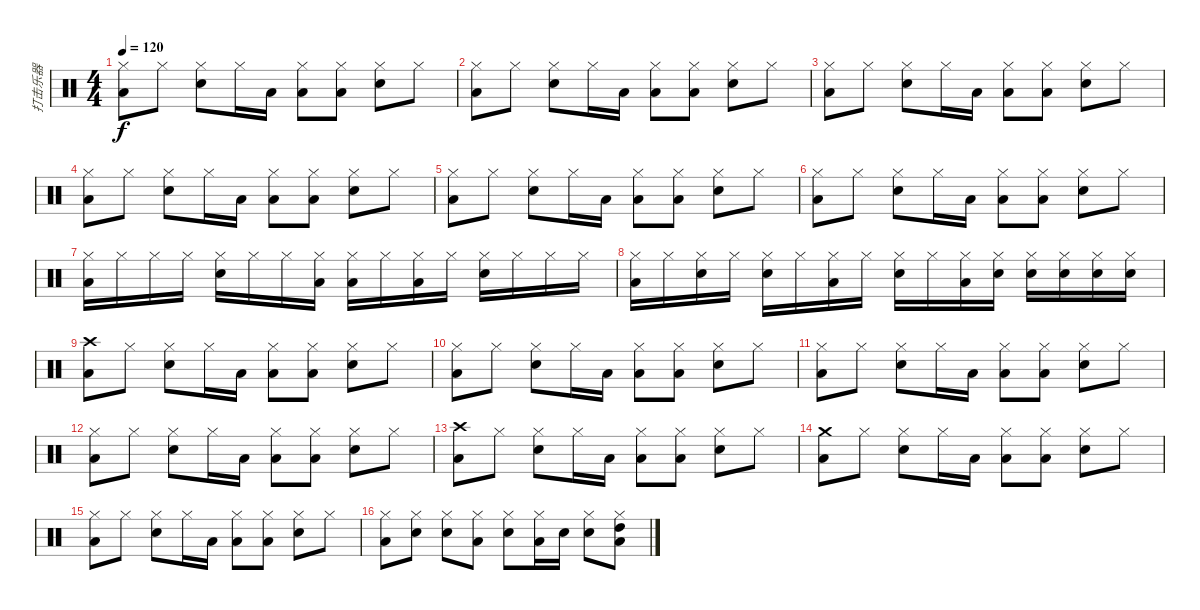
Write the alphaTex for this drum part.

\track ("打击乐器" "打击乐器") {instrument percussion}
\staff {score}
\articulation defaults
\ts (4 4)
\tempo 120
\clef neutral
\ks c
("Hi-Hat (closed)" "Low Floor Tom (hit)").8{dy f} "Hi-Hat (closed)".8 ("Hi-Hat (closed)" "Electric Snare (hit)").8 "Hi-Hat (closed)".16 "Low Floor Tom (hit)".16 ("Hi-Hat (closed)" "Low Floor Tom (hit)").8 ("Hi-Hat (closed)" "Low Floor Tom (hit)").8 ("Hi-Hat (closed)" "Electric Snare (hit)").8 "Hi-Hat (closed)".8 |
("Hi-Hat (closed)" "Low Floor Tom (hit)").8 "Hi-Hat (closed)".8 ("Hi-Hat (closed)" "Electric Snare (hit)").8 "Hi-Hat (closed)".16 "Low Floor Tom (hit)".16 ("Hi-Hat (closed)" "Low Floor Tom (hit)").8 ("Hi-Hat (closed)" "Low Floor Tom (hit)").8 ("Hi-Hat (closed)" "Electric Snare (hit)").8 "Hi-Hat (closed)".8 |
("Hi-Hat (closed)" "Low Floor Tom (hit)").8 "Hi-Hat (closed)".8 ("Hi-Hat (closed)" "Electric Snare (hit)").8 "Hi-Hat (closed)".16 "Low Floor Tom (hit)".16 ("Hi-Hat (closed)" "Low Floor Tom (hit)").8 ("Hi-Hat (closed)" "Low Floor Tom (hit)").8 ("Hi-Hat (closed)" "Electric Snare (hit)").8 "Hi-Hat (closed)".8 |
("Hi-Hat (closed)" "Low Floor Tom (hit)").8 "Hi-Hat (closed)".8 ("Hi-Hat (closed)" "Electric Snare (hit)").8 "Hi-Hat (closed)".16 "Low Floor Tom (hit)".16 ("Hi-Hat (closed)" "Low Floor Tom (hit)").8 ("Hi-Hat (closed)" "Low Floor Tom (hit)").8 ("Hi-Hat (closed)" "Electric Snare (hit)").8 "Hi-Hat (closed)".8 |
("Hi-Hat (closed)" "Low Floor Tom (hit)").8 "Hi-Hat (closed)".8 ("Hi-Hat (closed)" "Electric Snare (hit)").8 "Hi-Hat (closed)".16 "Low Floor Tom (hit)".16 ("Hi-Hat (closed)" "Low Floor Tom (hit)").8 ("Hi-Hat (closed)" "Low Floor Tom (hit)").8 ("Hi-Hat (closed)" "Electric Snare (hit)").8 "Hi-Hat (closed)".8 |
("Hi-Hat (closed)" "Low Floor Tom (hit)").8 "Hi-Hat (closed)".8 ("Hi-Hat (closed)" "Electric Snare (hit)").8 "Hi-Hat (closed)".16 "Low Floor Tom (hit)".16 ("Hi-Hat (closed)" "Low Floor Tom (hit)").8 ("Hi-Hat (closed)" "Low Floor Tom (hit)").8 ("Hi-Hat (closed)" "Electric Snare (hit)").8 "Hi-Hat (closed)".8 |
("Hi-Hat (closed)" "Low Floor Tom (hit)").16 "Hi-Hat (closed)".16 "Hi-Hat (closed)".16 "Hi-Hat (closed)".16 ("Hi-Hat (closed)" "Electric Snare (hit)").16 "Hi-Hat (closed)".16 "Hi-Hat (closed)".16 ("Hi-Hat (closed)" "Low Floor Tom (hit)").16 ("Hi-Hat (closed)" "Low Floor Tom (hit)").16 "Hi-Hat (closed)".16 ("Hi-Hat (closed)" "Low Floor Tom (hit)").16 "Hi-Hat (closed)".16 ("Hi-Hat (closed)" "Electric Snare (hit)").16 "Hi-Hat (closed)".16 "Hi-Hat (closed)".16 "Hi-Hat (closed)".16 |
("Hi-Hat (closed)" "Low Floor Tom (hit)").16 "Hi-Hat (closed)".16 ("Hi-Hat (closed)" "Electric Snare (hit)").16 "Hi-Hat (closed)".16 ("Hi-Hat (closed)" "Electric Snare (hit)").16 "Hi-Hat (closed)".16 ("Hi-Hat (closed)" "Low Floor Tom (hit)").16 "Hi-Hat (closed)".16 ("Hi-Hat (closed)" "Electric Snare (hit)").16 "Hi-Hat (closed)".16 ("Hi-Hat (closed)" "Low Floor Tom (hit)").16 ("Hi-Hat (closed)" "Electric Snare (hit)").16 ("Hi-Hat (closed)" "Electric Snare (hit)").16 ("Hi-Hat (closed)" "Electric Snare (hit)").16 ("Hi-Hat (closed)" "Electric Snare (hit)").16 ("Hi-Hat (closed)" "Electric Snare (hit)").16 |
("Crash high (hit)" "Low Floor Tom (hit)").8 "Hi-Hat (closed)".8 ("Hi-Hat (closed)" "Electric Snare (hit)").8 "Hi-Hat (closed)".16 "Low Floor Tom (hit)".16 ("Hi-Hat (closed)" "Low Floor Tom (hit)").8 ("Hi-Hat (closed)" "Low Floor Tom (hit)").8 ("Hi-Hat (closed)" "Electric Snare (hit)").8 "Hi-Hat (closed)".8 |
("Hi-Hat (closed)" "Low Floor Tom (hit)").8 "Hi-Hat (closed)".8 ("Hi-Hat (closed)" "Electric Snare (hit)").8 "Hi-Hat (closed)".16 "Low Floor Tom (hit)".16 ("Hi-Hat (closed)" "Low Floor Tom (hit)").8 ("Hi-Hat (closed)" "Low Floor Tom (hit)").8 ("Hi-Hat (closed)" "Electric Snare (hit)").8 "Hi-Hat (closed)".8 |
("Hi-Hat (closed)" "Low Floor Tom (hit)").8 "Hi-Hat (closed)".8 ("Hi-Hat (closed)" "Electric Snare (hit)").8 "Hi-Hat (closed)".16 "Low Floor Tom (hit)".16 ("Hi-Hat (closed)" "Low Floor Tom (hit)").8 ("Hi-Hat (closed)" "Low Floor Tom (hit)").8 ("Hi-Hat (closed)" "Electric Snare (hit)").8 "Hi-Hat (closed)".8 |
("Hi-Hat (closed)" "Low Floor Tom (hit)").8 "Hi-Hat (closed)".8 ("Hi-Hat (closed)" "Electric Snare (hit)").8 "Hi-Hat (closed)".16 "Low Floor Tom (hit)".16 ("Hi-Hat (closed)" "Low Floor Tom (hit)").8 ("Hi-Hat (closed)" "Low Floor Tom (hit)").8 ("Hi-Hat (closed)" "Electric Snare (hit)").8 "Hi-Hat (closed)".8 |
("Crash high (hit)" "Low Floor Tom (hit)").8 "Hi-Hat (closed)".8 ("Hi-Hat (closed)" "Electric Snare (hit)").8 "Hi-Hat (closed)".16 "Low Floor Tom (hit)".16 ("Hi-Hat (closed)" "Low Floor Tom (hit)").8 ("Hi-Hat (closed)" "Low Floor Tom (hit)").8 ("Hi-Hat (closed)" "Electric Snare (hit)").8 "Hi-Hat (closed)".8 |
("Crash medium (hit)" "Low Floor Tom (hit)").8 "Hi-Hat (closed)".8 ("Hi-Hat (closed)" "Electric Snare (hit)").8 "Hi-Hat (closed)".16 "Low Floor Tom (hit)".16 ("Hi-Hat (closed)" "Low Floor Tom (hit)").8 ("Hi-Hat (closed)" "Low Floor Tom (hit)").8 ("Hi-Hat (closed)" "Electric Snare (hit)").8 "Hi-Hat (closed)".8 |
("Hi-Hat (closed)" "Low Floor Tom (hit)").8 "Hi-Hat (closed)".8 ("Hi-Hat (closed)" "Electric Snare (hit)").8 "Hi-Hat (closed)".16 "Low Floor Tom (hit)".16 ("Hi-Hat (closed)" "Low Floor Tom (hit)").8 ("Hi-Hat (closed)" "Low Floor Tom (hit)").8 ("Hi-Hat (closed)" "Electric Snare (hit)").8 "Hi-Hat (closed)".8 |
("Hi-Hat (closed)" "Low Floor Tom (hit)").8 ("Hi-Hat (closed)" "Electric Snare (hit)").8 ("Hi-Hat (closed)" "Electric Snare (hit)").8 ("Hi-Hat (closed)" "Low Floor Tom (hit)").8 ("Hi-Hat (closed)" "Electric Snare (hit)").8 ("Hi-Hat (closed)" "Low Floor Tom (hit)").16 "Electric Snare (hit)".16 ("Hi-Hat (closed)" "Electric Snare (hit)").8 ("Hi-Hat (closed)" "High Tom (hit)" "Low Floor Tom (hit)").8
